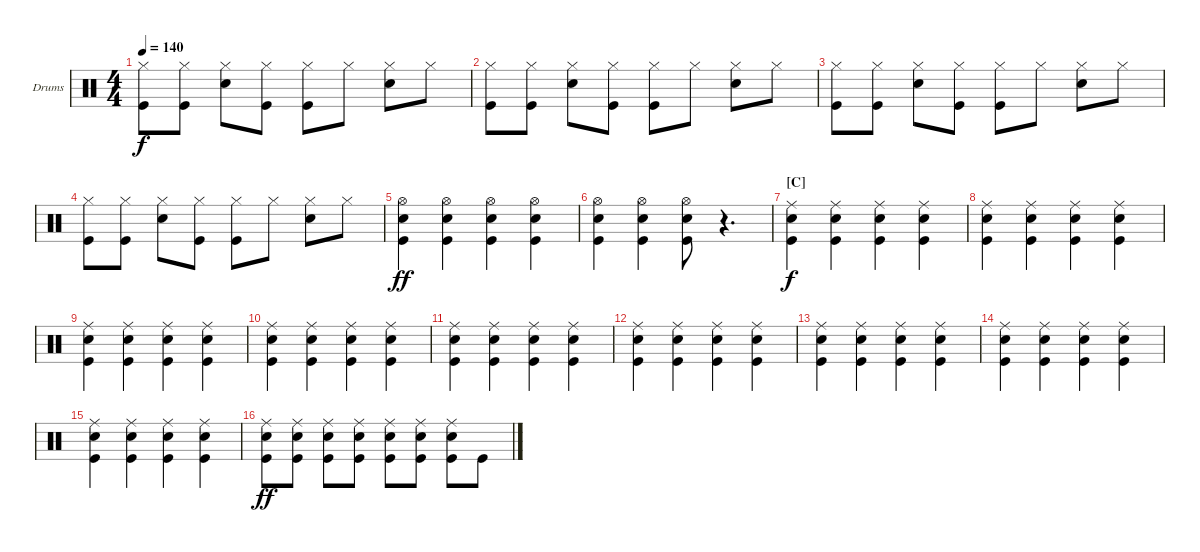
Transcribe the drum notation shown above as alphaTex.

\bracketExtendMode groupsimilarinstruments
\firstSystemTrackNameOrientation horizontal
\otherSystemsTrackNameOrientation horizontal
\track ("Fabrizio Moretti" "Drums") {instrument percussion}
\staff {score}
\articulation defaults
\ts (4 4)
\tempo 140
\clef neutral
\ks aminor
("Kick (hit)" "Hi-Hat (closed)").8{dy f} ("Kick (hit)" "Hi-Hat (closed)").8 ("Snare (hit) 2" "Hi-Hat (closed)").8 ("Kick (hit)" "Hi-Hat (closed)").8 ("Kick (hit)" "Hi-Hat (closed)").8 "Hi-Hat (closed)".8 ("Snare (hit) 2" "Hi-Hat (closed)").8 "Hi-Hat (closed)".8 |
("Kick (hit)" "Hi-Hat (closed)").8 ("Kick (hit)" "Hi-Hat (closed)").8 ("Snare (hit) 2" "Hi-Hat (closed)").8 ("Kick (hit)" "Hi-Hat (closed)").8 ("Kick (hit)" "Hi-Hat (closed)").8 "Hi-Hat (closed)".8 ("Snare (hit) 2" "Hi-Hat (closed)").8 "Hi-Hat (closed)".8 |
("Kick (hit)" "Hi-Hat (closed)").8 ("Kick (hit)" "Hi-Hat (closed)").8 ("Snare (hit) 2" "Hi-Hat (closed)").8 ("Kick (hit)" "Hi-Hat (closed)").8 ("Kick (hit)" "Hi-Hat (closed)").8 "Hi-Hat (closed)".8 ("Snare (hit) 2" "Hi-Hat (closed)").8 "Hi-Hat (closed)".8 |
("Kick (hit)" "Hi-Hat (closed)").8 ("Kick (hit)" "Hi-Hat (closed)").8 ("Snare (hit) 2" "Hi-Hat (closed)").8 ("Kick (hit)" "Hi-Hat (closed)").8 ("Kick (hit)" "Hi-Hat (closed)").8 "Hi-Hat (closed)".8 ("Snare (hit) 2" "Hi-Hat (closed)").8 "Hi-Hat (closed)".8 |
("Hi-Hat (open)" "Snare (hit) 2" "Kick (hit)").4{dy ff} ("Hi-Hat (open)" "Snare (hit) 2" "Kick (hit)").4 ("Hi-Hat (open)" "Snare (hit) 2" "Kick (hit)").4 ("Hi-Hat (open)" "Snare (hit) 2" "Kick (hit)").4 |
("Hi-Hat (open)" "Snare (hit) 2" "Kick (hit)").4 ("Hi-Hat (open)" "Snare (hit) 2" "Kick (hit)").4 ("Hi-Hat (open)" "Snare (hit) 2" "Kick (hit)").8 r.4{d} |
\section ("C" "")
("Snare (hit) 2" "Ride (middle)" "Kick (hit)").4{dy f} ("Snare (hit) 2" "Ride (middle)" "Kick (hit)").4 ("Snare (hit) 2" "Ride (middle)" "Kick (hit)").4 ("Snare (hit) 2" "Ride (middle)" "Kick (hit)").4 |
("Snare (hit) 2" "Ride (middle)" "Kick (hit)").4 ("Snare (hit) 2" "Ride (middle)" "Kick (hit)").4 ("Snare (hit) 2" "Ride (middle)" "Kick (hit)").4 ("Snare (hit) 2" "Ride (middle)" "Kick (hit)").4 |
("Snare (hit) 2" "Ride (middle)" "Kick (hit)").4 ("Snare (hit) 2" "Ride (middle)" "Kick (hit)").4 ("Snare (hit) 2" "Ride (middle)" "Kick (hit)").4 ("Snare (hit) 2" "Ride (middle)" "Kick (hit)").4 |
("Snare (hit) 2" "Ride (middle)" "Kick (hit)").4 ("Snare (hit) 2" "Ride (middle)" "Kick (hit)").4 ("Snare (hit) 2" "Ride (middle)" "Kick (hit)").4 ("Snare (hit) 2" "Ride (middle)" "Kick (hit)").4 |
("Snare (hit) 2" "Ride (middle)" "Kick (hit)").4 ("Snare (hit) 2" "Ride (middle)" "Kick (hit)").4 ("Snare (hit) 2" "Ride (middle)" "Kick (hit)").4 ("Snare (hit) 2" "Ride (middle)" "Kick (hit)").4 |
("Snare (hit) 2" "Ride (middle)" "Kick (hit)").4 ("Snare (hit) 2" "Ride (middle)" "Kick (hit)").4 ("Snare (hit) 2" "Ride (middle)" "Kick (hit)").4 ("Snare (hit) 2" "Ride (middle)" "Kick (hit)").4 |
("Snare (hit) 2" "Ride (middle)" "Kick (hit)").4 ("Snare (hit) 2" "Ride (middle)" "Kick (hit)").4 ("Snare (hit) 2" "Ride (middle)" "Kick (hit)").4 ("Snare (hit) 2" "Ride (middle)" "Kick (hit)").4 |
("Snare (hit) 2" "Ride (middle)" "Kick (hit)").4 ("Snare (hit) 2" "Ride (middle)" "Kick (hit)").4 ("Snare (hit) 2" "Ride (middle)" "Kick (hit)").4 ("Snare (hit) 2" "Ride (middle)" "Kick (hit)").4 |
("Snare (hit) 2" "Ride (middle)" "Kick (hit)").4 ("Snare (hit) 2" "Ride (middle)" "Kick (hit)").4 ("Snare (hit) 2" "Ride (middle)" "Kick (hit)").4 ("Snare (hit) 2" "Ride (middle)" "Kick (hit)").4 |
("Snare (hit) 2" "Ride (middle)" "Kick (hit)").8{dy ff} ("Snare (hit) 2" "Ride (middle)" "Kick (hit)").8 ("Snare (hit) 2" "Ride (middle)" "Kick (hit)").8 ("Snare (hit) 2" "Ride (middle)" "Kick (hit)").8 ("Snare (hit) 2" "Ride (middle)" "Kick (hit)").8 ("Snare (hit) 2" "Ride (middle)" "Kick (hit)").8 ("Snare (hit) 2" "Ride (middle)" "Kick (hit)").8 "Kick (hit)".8
